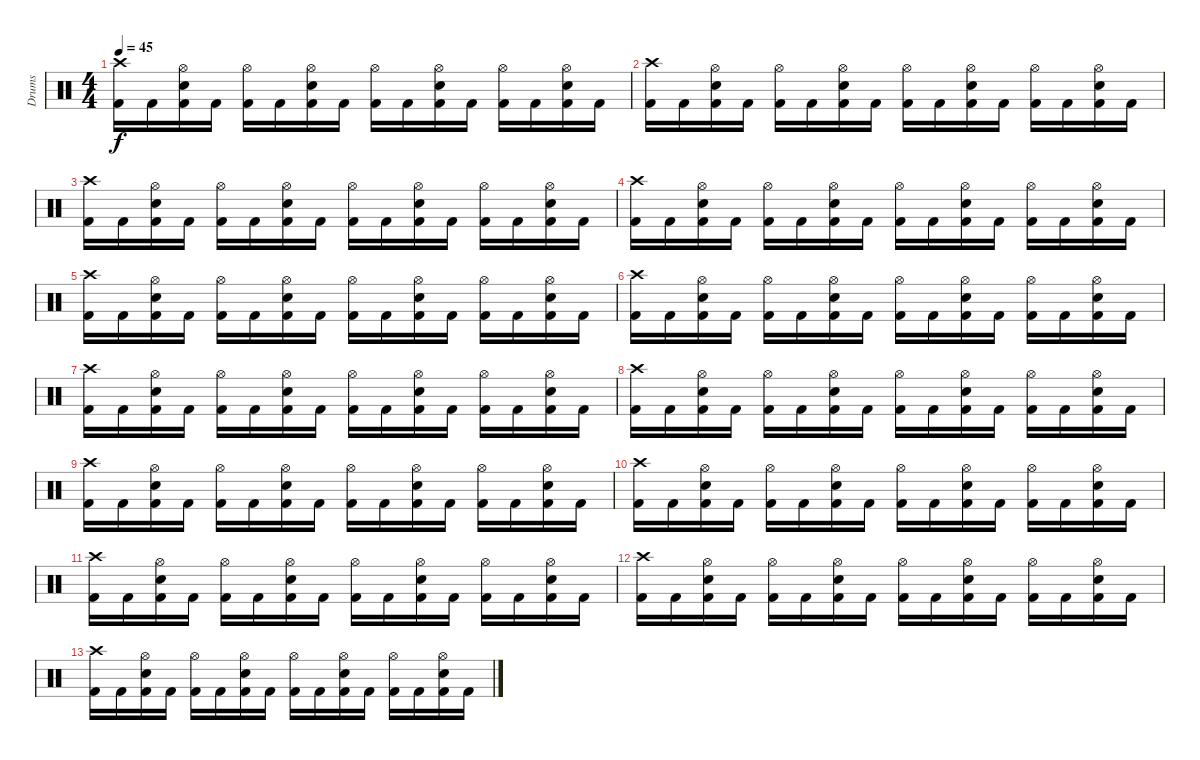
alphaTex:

\track ("Drums" "Drums") {instrument percussion}
\staff {score}
\articulation defaults
\ts (4 4)
\tempo 45
\clef neutral
\ks c
("Crash high (hit)" "Kick (hit) 2").16{dy f} "Kick (hit) 2".16 ("Hi-Hat (open)" "Snare (hit) 2" "Kick (hit) 2").16 "Kick (hit) 2".16 ("Hi-Hat (open)" "Kick (hit) 2").16 "Kick (hit) 2".16 ("Hi-Hat (open)" "Snare (hit) 2" "Kick (hit) 2").16 "Kick (hit) 2".16 ("Hi-Hat (open)" "Kick (hit) 2").16 "Kick (hit) 2".16 ("Hi-Hat (open)" "Snare (hit) 2" "Kick (hit) 2").16 "Kick (hit) 2".16 ("Hi-Hat (open)" "Kick (hit) 2").16 "Kick (hit) 2".16 ("Hi-Hat (open)" "Snare (hit) 2" "Kick (hit) 2").16 "Kick (hit) 2".16 |
("Crash high (hit)" "Kick (hit) 2").16 "Kick (hit) 2".16 ("Hi-Hat (open)" "Snare (hit) 2" "Kick (hit) 2").16 "Kick (hit) 2".16 ("Hi-Hat (open)" "Kick (hit) 2").16 "Kick (hit) 2".16 ("Hi-Hat (open)" "Snare (hit) 2" "Kick (hit) 2").16 "Kick (hit) 2".16 ("Hi-Hat (open)" "Kick (hit) 2").16 "Kick (hit) 2".16 ("Hi-Hat (open)" "Snare (hit) 2" "Kick (hit) 2").16 "Kick (hit) 2".16 ("Hi-Hat (open)" "Kick (hit) 2").16 "Kick (hit) 2".16 ("Hi-Hat (open)" "Snare (hit) 2" "Kick (hit) 2").16 "Kick (hit) 2".16 |
("Crash high (hit)" "Kick (hit) 2").16 "Kick (hit) 2".16 ("Hi-Hat (open)" "Snare (hit) 2" "Kick (hit) 2").16 "Kick (hit) 2".16 ("Hi-Hat (open)" "Kick (hit) 2").16 "Kick (hit) 2".16 ("Hi-Hat (open)" "Snare (hit) 2" "Kick (hit) 2").16 "Kick (hit) 2".16 ("Hi-Hat (open)" "Kick (hit) 2").16 "Kick (hit) 2".16 ("Hi-Hat (open)" "Snare (hit) 2" "Kick (hit) 2").16 "Kick (hit) 2".16 ("Hi-Hat (open)" "Kick (hit) 2").16 "Kick (hit) 2".16 ("Hi-Hat (open)" "Snare (hit) 2" "Kick (hit) 2").16 "Kick (hit) 2".16 |
("Crash high (hit)" "Kick (hit) 2").16 "Kick (hit) 2".16 ("Hi-Hat (open)" "Snare (hit) 2" "Kick (hit) 2").16 "Kick (hit) 2".16 ("Hi-Hat (open)" "Kick (hit) 2").16 "Kick (hit) 2".16 ("Hi-Hat (open)" "Snare (hit) 2" "Kick (hit) 2").16 "Kick (hit) 2".16 ("Hi-Hat (open)" "Kick (hit) 2").16 "Kick (hit) 2".16 ("Hi-Hat (open)" "Snare (hit) 2" "Kick (hit) 2").16 "Kick (hit) 2".16 ("Hi-Hat (open)" "Kick (hit) 2").16 "Kick (hit) 2".16 ("Hi-Hat (open)" "Snare (hit) 2" "Kick (hit) 2").16 "Kick (hit) 2".16 |
("Crash high (hit)" "Kick (hit) 2").16 "Kick (hit) 2".16 ("Hi-Hat (open)" "Snare (hit) 2" "Kick (hit) 2").16 "Kick (hit) 2".16 ("Hi-Hat (open)" "Kick (hit) 2").16 "Kick (hit) 2".16 ("Hi-Hat (open)" "Snare (hit) 2" "Kick (hit) 2").16 "Kick (hit) 2".16 ("Hi-Hat (open)" "Kick (hit) 2").16 "Kick (hit) 2".16 ("Hi-Hat (open)" "Snare (hit) 2" "Kick (hit) 2").16 "Kick (hit) 2".16 ("Hi-Hat (open)" "Kick (hit) 2").16 "Kick (hit) 2".16 ("Hi-Hat (open)" "Snare (hit) 2" "Kick (hit) 2").16 "Kick (hit) 2".16 |
("Crash high (hit)" "Kick (hit) 2").16 "Kick (hit) 2".16 ("Hi-Hat (open)" "Snare (hit) 2" "Kick (hit) 2").16 "Kick (hit) 2".16 ("Hi-Hat (open)" "Kick (hit) 2").16 "Kick (hit) 2".16 ("Hi-Hat (open)" "Snare (hit) 2" "Kick (hit) 2").16 "Kick (hit) 2".16 ("Hi-Hat (open)" "Kick (hit) 2").16 "Kick (hit) 2".16 ("Hi-Hat (open)" "Snare (hit) 2" "Kick (hit) 2").16 "Kick (hit) 2".16 ("Hi-Hat (open)" "Kick (hit) 2").16 "Kick (hit) 2".16 ("Hi-Hat (open)" "Snare (hit) 2" "Kick (hit) 2").16 "Kick (hit) 2".16 |
("Crash high (hit)" "Kick (hit) 2").16 "Kick (hit) 2".16 ("Hi-Hat (open)" "Snare (hit) 2" "Kick (hit) 2").16 "Kick (hit) 2".16 ("Hi-Hat (open)" "Kick (hit) 2").16 "Kick (hit) 2".16 ("Hi-Hat (open)" "Snare (hit) 2" "Kick (hit) 2").16 "Kick (hit) 2".16 ("Hi-Hat (open)" "Kick (hit) 2").16 "Kick (hit) 2".16 ("Hi-Hat (open)" "Snare (hit) 2" "Kick (hit) 2").16 "Kick (hit) 2".16 ("Hi-Hat (open)" "Kick (hit) 2").16 "Kick (hit) 2".16 ("Hi-Hat (open)" "Snare (hit) 2" "Kick (hit) 2").16 "Kick (hit) 2".16 |
("Crash high (hit)" "Kick (hit) 2").16 "Kick (hit) 2".16 ("Hi-Hat (open)" "Snare (hit) 2" "Kick (hit) 2").16 "Kick (hit) 2".16 ("Hi-Hat (open)" "Kick (hit) 2").16 "Kick (hit) 2".16 ("Hi-Hat (open)" "Snare (hit) 2" "Kick (hit) 2").16 "Kick (hit) 2".16 ("Hi-Hat (open)" "Kick (hit) 2").16 "Kick (hit) 2".16 ("Hi-Hat (open)" "Snare (hit) 2" "Kick (hit) 2").16 "Kick (hit) 2".16 ("Hi-Hat (open)" "Kick (hit) 2").16 "Kick (hit) 2".16 ("Hi-Hat (open)" "Snare (hit) 2" "Kick (hit) 2").16 "Kick (hit) 2".16 |
("Crash high (hit)" "Kick (hit) 2").16 "Kick (hit) 2".16 ("Hi-Hat (open)" "Snare (hit) 2" "Kick (hit) 2").16 "Kick (hit) 2".16 ("Hi-Hat (open)" "Kick (hit) 2").16 "Kick (hit) 2".16 ("Hi-Hat (open)" "Snare (hit) 2" "Kick (hit) 2").16 "Kick (hit) 2".16 ("Hi-Hat (open)" "Kick (hit) 2").16 "Kick (hit) 2".16 ("Hi-Hat (open)" "Snare (hit) 2" "Kick (hit) 2").16 "Kick (hit) 2".16 ("Hi-Hat (open)" "Kick (hit) 2").16 "Kick (hit) 2".16 ("Hi-Hat (open)" "Snare (hit) 2" "Kick (hit) 2").16 "Kick (hit) 2".16 |
("Crash high (hit)" "Kick (hit) 2").16{volume 0} "Kick (hit) 2".16 ("Hi-Hat (open)" "Snare (hit) 2" "Kick (hit) 2").16 "Kick (hit) 2".16 ("Hi-Hat (open)" "Kick (hit) 2").16 "Kick (hit) 2".16 ("Hi-Hat (open)" "Snare (hit) 2" "Kick (hit) 2").16 "Kick (hit) 2".16 ("Hi-Hat (open)" "Kick (hit) 2").16 "Kick (hit) 2".16 ("Hi-Hat (open)" "Snare (hit) 2" "Kick (hit) 2").16 "Kick (hit) 2".16 ("Hi-Hat (open)" "Kick (hit) 2").16 "Kick (hit) 2".16 ("Hi-Hat (open)" "Snare (hit) 2" "Kick (hit) 2").16 "Kick (hit) 2".16 |
("Crash high (hit)" "Kick (hit) 2").16 "Kick (hit) 2".16 ("Hi-Hat (open)" "Snare (hit) 2" "Kick (hit) 2").16 "Kick (hit) 2".16 ("Hi-Hat (open)" "Kick (hit) 2").16 "Kick (hit) 2".16 ("Hi-Hat (open)" "Snare (hit) 2" "Kick (hit) 2").16 "Kick (hit) 2".16 ("Hi-Hat (open)" "Kick (hit) 2").16 "Kick (hit) 2".16 ("Hi-Hat (open)" "Snare (hit) 2" "Kick (hit) 2").16 "Kick (hit) 2".16 ("Hi-Hat (open)" "Kick (hit) 2").16 "Kick (hit) 2".16 ("Hi-Hat (open)" "Snare (hit) 2" "Kick (hit) 2").16 "Kick (hit) 2".16 |
("Crash high (hit)" "Kick (hit) 2").16 "Kick (hit) 2".16 ("Hi-Hat (open)" "Snare (hit) 2" "Kick (hit) 2").16 "Kick (hit) 2".16 ("Hi-Hat (open)" "Kick (hit) 2").16 "Kick (hit) 2".16 ("Hi-Hat (open)" "Snare (hit) 2" "Kick (hit) 2").16 "Kick (hit) 2".16 ("Hi-Hat (open)" "Kick (hit) 2").16 "Kick (hit) 2".16 ("Hi-Hat (open)" "Snare (hit) 2" "Kick (hit) 2").16 "Kick (hit) 2".16 ("Hi-Hat (open)" "Kick (hit) 2").16 "Kick (hit) 2".16 ("Hi-Hat (open)" "Snare (hit) 2" "Kick (hit) 2").16 "Kick (hit) 2".16 |
("Crash high (hit)" "Kick (hit) 2").16 "Kick (hit) 2".16 ("Hi-Hat (open)" "Snare (hit) 2" "Kick (hit) 2").16 "Kick (hit) 2".16 ("Hi-Hat (open)" "Kick (hit) 2").16 "Kick (hit) 2".16 ("Hi-Hat (open)" "Snare (hit) 2" "Kick (hit) 2").16 "Kick (hit) 2".16 ("Hi-Hat (open)" "Kick (hit) 2").16 "Kick (hit) 2".16 ("Hi-Hat (open)" "Snare (hit) 2" "Kick (hit) 2").16 "Kick (hit) 2".16 ("Hi-Hat (open)" "Kick (hit) 2").16 "Kick (hit) 2".16 ("Hi-Hat (open)" "Snare (hit) 2" "Kick (hit) 2").16 "Kick (hit) 2".16
